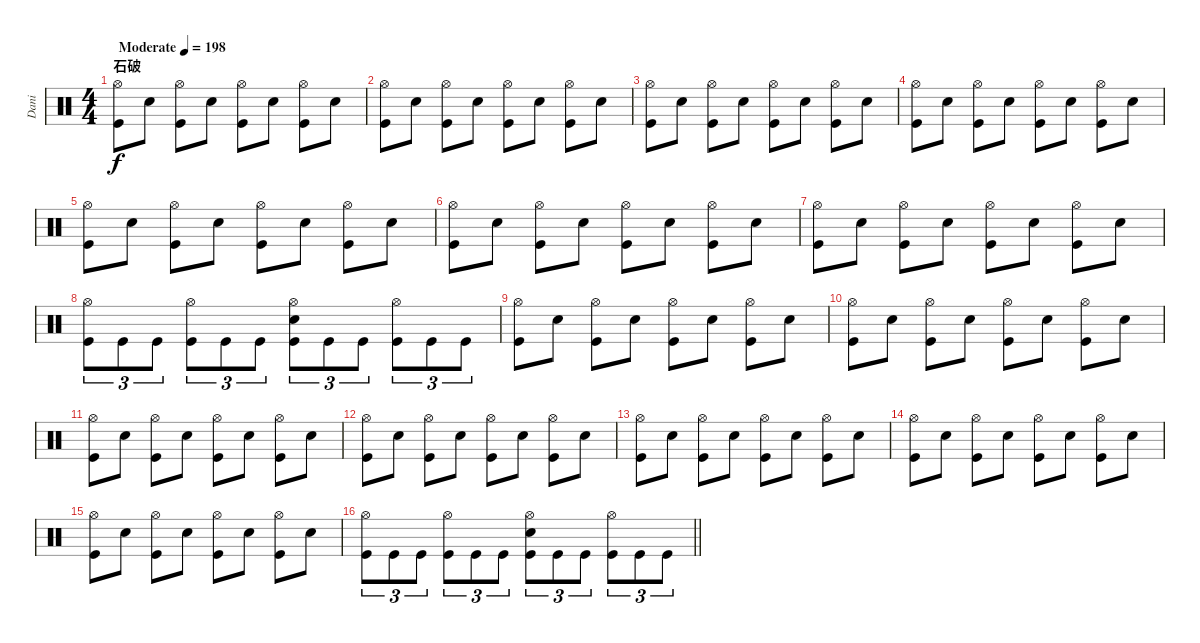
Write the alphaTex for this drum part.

\track ("Dani" "Dani") {instrument percussion}
\staff {score}
\articulation defaults
\ts (4 4)
\section ("" "石破")
\tempo (198 "Moderate")
\clef neutral
\ks c
("Hi-Hat (open)" "Kick (hit)").8{dy f} "Snare (hit) 2".8 ("Hi-Hat (open)" "Kick (hit)").8 "Snare (hit) 2".8 ("Hi-Hat (open)" "Kick (hit)").8 "Snare (hit) 2".8 ("Hi-Hat (open)" "Kick (hit)").8 "Snare (hit) 2".8 |
("Hi-Hat (open)" "Kick (hit)").8 "Snare (hit) 2".8 ("Hi-Hat (open)" "Kick (hit)").8 "Snare (hit) 2".8 ("Hi-Hat (open)" "Kick (hit)").8 "Snare (hit) 2".8 ("Hi-Hat (open)" "Kick (hit)").8 "Snare (hit) 2".8 |
("Hi-Hat (open)" "Kick (hit)").8 "Snare (hit) 2".8 ("Hi-Hat (open)" "Kick (hit)").8 "Snare (hit) 2".8 ("Hi-Hat (open)" "Kick (hit)").8 "Snare (hit) 2".8 ("Hi-Hat (open)" "Kick (hit)").8 "Snare (hit) 2".8 |
("Hi-Hat (open)" "Kick (hit)").8 "Snare (hit) 2".8 ("Hi-Hat (open)" "Kick (hit)").8 "Snare (hit) 2".8 ("Hi-Hat (open)" "Kick (hit)").8 "Snare (hit) 2".8 ("Hi-Hat (open)" "Kick (hit)").8 "Snare (hit) 2".8 |
("Hi-Hat (open)" "Kick (hit)").8 "Snare (hit) 2".8 ("Hi-Hat (open)" "Kick (hit)").8 "Snare (hit) 2".8 ("Hi-Hat (open)" "Kick (hit)").8 "Snare (hit) 2".8 ("Hi-Hat (open)" "Kick (hit)").8 "Snare (hit) 2".8 |
("Hi-Hat (open)" "Kick (hit)").8 "Snare (hit) 2".8 ("Hi-Hat (open)" "Kick (hit)").8 "Snare (hit) 2".8 ("Hi-Hat (open)" "Kick (hit)").8 "Snare (hit) 2".8 ("Hi-Hat (open)" "Kick (hit)").8 "Snare (hit) 2".8 |
("Hi-Hat (open)" "Kick (hit)").8 "Snare (hit) 2".8 ("Hi-Hat (open)" "Kick (hit)").8 "Snare (hit) 2".8 ("Hi-Hat (open)" "Kick (hit)").8 "Snare (hit) 2".8 ("Hi-Hat (open)" "Kick (hit)").8 "Snare (hit) 2".8 |
("Hi-Hat (open)" "Kick (hit)").8{tu (3 2)} "Kick (hit)".8{tu (3 2)} "Kick (hit)".8{tu (3 2)} ("Hi-Hat (open)" "Kick (hit)").8{tu (3 2)} "Kick (hit)".8{tu (3 2)} "Kick (hit)".8{tu (3 2)} ("Hi-Hat (open)" "Kick (hit)" "Snare (hit) 2").8{tu (3 2)} "Kick (hit)".8{tu (3 2)} "Kick (hit)".8{tu (3 2)} ("Hi-Hat (open)" "Kick (hit)").8{tu (3 2)} "Kick (hit)".8{tu (3 2)} "Kick (hit)".8{tu (3 2)} |
("Hi-Hat (open)" "Kick (hit)").8 "Snare (hit) 2".8 ("Hi-Hat (open)" "Kick (hit)").8 "Snare (hit) 2".8 ("Hi-Hat (open)" "Kick (hit)").8 "Snare (hit) 2".8 ("Hi-Hat (open)" "Kick (hit)").8 "Snare (hit) 2".8 |
("Hi-Hat (open)" "Kick (hit)").8 "Snare (hit) 2".8 ("Hi-Hat (open)" "Kick (hit)").8 "Snare (hit) 2".8 ("Hi-Hat (open)" "Kick (hit)").8 "Snare (hit) 2".8 ("Hi-Hat (open)" "Kick (hit)").8 "Snare (hit) 2".8 |
("Hi-Hat (open)" "Kick (hit)").8 "Snare (hit) 2".8 ("Hi-Hat (open)" "Kick (hit)").8 "Snare (hit) 2".8 ("Hi-Hat (open)" "Kick (hit)").8 "Snare (hit) 2".8 ("Hi-Hat (open)" "Kick (hit)").8 "Snare (hit) 2".8 |
("Hi-Hat (open)" "Kick (hit)").8 "Snare (hit) 2".8 ("Hi-Hat (open)" "Kick (hit)").8 "Snare (hit) 2".8 ("Hi-Hat (open)" "Kick (hit)").8 "Snare (hit) 2".8 ("Hi-Hat (open)" "Kick (hit)").8 "Snare (hit) 2".8 |
("Hi-Hat (open)" "Kick (hit)").8 "Snare (hit) 2".8 ("Hi-Hat (open)" "Kick (hit)").8 "Snare (hit) 2".8 ("Hi-Hat (open)" "Kick (hit)").8 "Snare (hit) 2".8 ("Hi-Hat (open)" "Kick (hit)").8 "Snare (hit) 2".8 |
("Hi-Hat (open)" "Kick (hit)").8 "Snare (hit) 2".8 ("Hi-Hat (open)" "Kick (hit)").8 "Snare (hit) 2".8 ("Hi-Hat (open)" "Kick (hit)").8 "Snare (hit) 2".8 ("Hi-Hat (open)" "Kick (hit)").8 "Snare (hit) 2".8 |
("Hi-Hat (open)" "Kick (hit)").8 "Snare (hit) 2".8 ("Hi-Hat (open)" "Kick (hit)").8 "Snare (hit) 2".8 ("Hi-Hat (open)" "Kick (hit)").8 "Snare (hit) 2".8 ("Hi-Hat (open)" "Kick (hit)").8 "Snare (hit) 2".8 |
\barLineRight lightlight
("Hi-Hat (open)" "Kick (hit)").8{tu (3 2)} "Kick (hit)".8{tu (3 2)} "Kick (hit)".8{tu (3 2)} ("Hi-Hat (open)" "Kick (hit)").8{tu (3 2)} "Kick (hit)".8{tu (3 2)} "Kick (hit)".8{tu (3 2)} ("Hi-Hat (open)" "Kick (hit)" "Snare (hit) 2").8{tu (3 2)} "Kick (hit)".8{tu (3 2)} "Kick (hit)".8{tu (3 2)} ("Hi-Hat (open)" "Kick (hit)").8{tu (3 2)} "Kick (hit)".8{tu (3 2)} "Kick (hit)".8{tu (3 2)}
